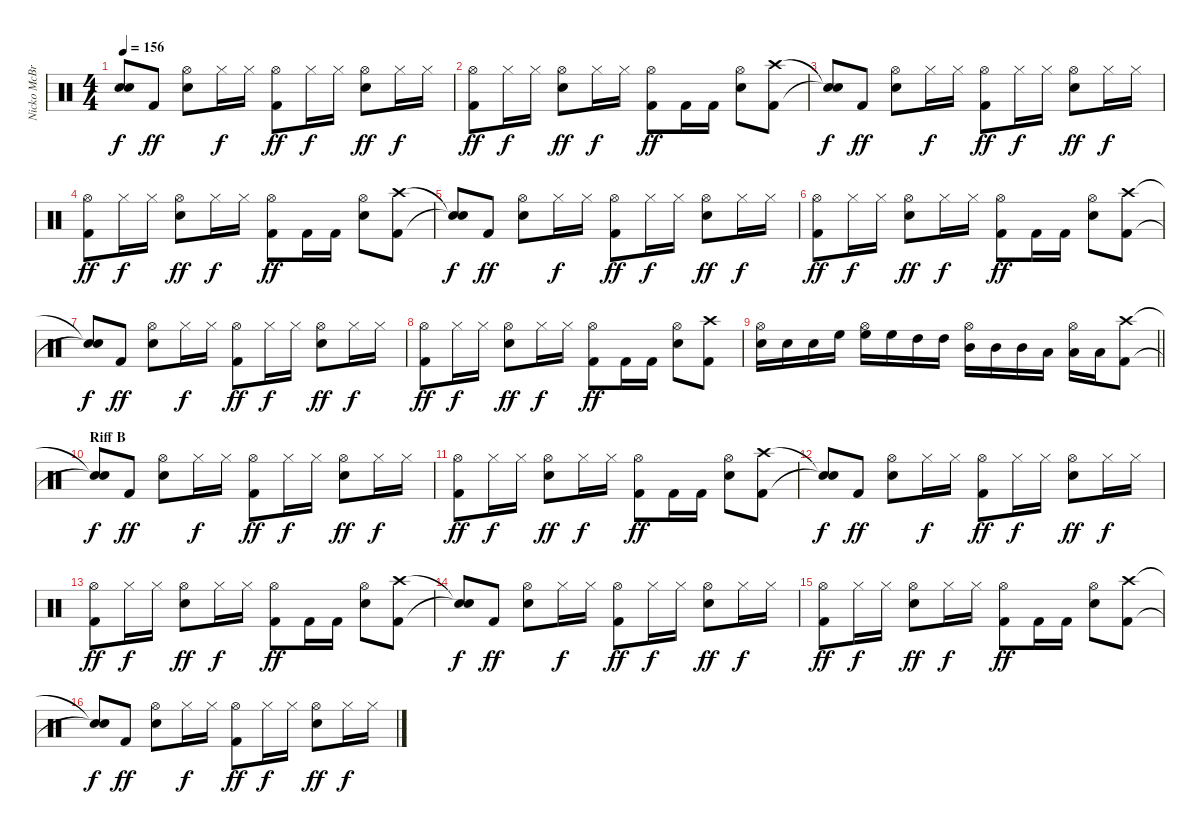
\track ("Nicko McBrain" "Nicko McBr") {instrument percussion}
\staff {score}
\articulation defaults
\ts (4 4)
\tempo 156
\clef neutral
\ks c
("Snare (hit)"{t} "Snare (hit)"{t}).8{dy f} "Kick (hit) 2".8{dy ff} ("Snare (hit) 2" "Hi-Hat (open)").8 "Hi-Hat (closed)".16{dy f} "Hi-Hat (closed)".16 ("Kick (hit) 2" "Hi-Hat (open)").8{dy ff} "Hi-Hat (closed)".16{dy f} "Hi-Hat (closed)".16 ("Snare (hit) 2" "Hi-Hat (open)").8{dy ff} "Hi-Hat (closed)".16{dy f} "Hi-Hat (closed)".16 |
("Kick (hit) 2" "Hi-Hat (open)").8{dy ff} "Hi-Hat (closed)".16{dy f} "Hi-Hat (closed)".16 ("Snare (hit) 2" "Hi-Hat (open)").8{dy ff} "Hi-Hat (closed)".16{dy f} "Hi-Hat (closed)".16 ("Kick (hit) 2" "Hi-Hat (open)").8{dy ff} "Kick (hit) 2".16 "Kick (hit) 2".16 ("Snare (hit) 2" "Hi-Hat (open)").8 ("Kick (hit) 2" "Crash high (hit)").8 |
("Snare (hit)"{t} "Snare (hit)"{t}).8{dy f} "Kick (hit) 2".8{dy ff} ("Snare (hit) 2" "Hi-Hat (open)").8 "Hi-Hat (closed)".16{dy f} "Hi-Hat (closed)".16 ("Kick (hit) 2" "Hi-Hat (open)").8{dy ff} "Hi-Hat (closed)".16{dy f} "Hi-Hat (closed)".16 ("Snare (hit) 2" "Hi-Hat (open)").8{dy ff} "Hi-Hat (closed)".16{dy f} "Hi-Hat (closed)".16 |
("Kick (hit) 2" "Hi-Hat (open)").8{dy ff} "Hi-Hat (closed)".16{dy f} "Hi-Hat (closed)".16 ("Snare (hit) 2" "Hi-Hat (open)").8{dy ff} "Hi-Hat (closed)".16{dy f} "Hi-Hat (closed)".16 ("Kick (hit) 2" "Hi-Hat (open)").8{dy ff} "Kick (hit) 2".16 "Kick (hit) 2".16 ("Snare (hit) 2" "Hi-Hat (open)").8 ("Kick (hit) 2" "Crash high (hit)").8 |
("Snare (hit)"{t} "Snare (hit)"{t}).8{dy f} "Kick (hit) 2".8{dy ff} ("Snare (hit) 2" "Hi-Hat (open)").8 "Hi-Hat (closed)".16{dy f} "Hi-Hat (closed)".16 ("Kick (hit) 2" "Hi-Hat (open)").8{dy ff} "Hi-Hat (closed)".16{dy f} "Hi-Hat (closed)".16 ("Snare (hit) 2" "Hi-Hat (open)").8{dy ff} "Hi-Hat (closed)".16{dy f} "Hi-Hat (closed)".16 |
("Kick (hit) 2" "Hi-Hat (open)").8{dy ff} "Hi-Hat (closed)".16{dy f} "Hi-Hat (closed)".16 ("Snare (hit) 2" "Hi-Hat (open)").8{dy ff} "Hi-Hat (closed)".16{dy f} "Hi-Hat (closed)".16 ("Kick (hit) 2" "Hi-Hat (open)").8{dy ff} "Kick (hit) 2".16 "Kick (hit) 2".16 ("Snare (hit) 2" "Hi-Hat (open)").8 ("Kick (hit) 2" "Crash high (hit)").8 |
("Snare (hit)"{t} "Snare (hit)"{t}).8{dy f} "Kick (hit) 2".8{dy ff} ("Snare (hit) 2" "Hi-Hat (open)").8 "Hi-Hat (closed)".16{dy f} "Hi-Hat (closed)".16 ("Kick (hit) 2" "Hi-Hat (open)").8{dy ff} "Hi-Hat (closed)".16{dy f} "Hi-Hat (closed)".16 ("Snare (hit) 2" "Hi-Hat (open)").8{dy ff} "Hi-Hat (closed)".16{dy f} "Hi-Hat (closed)".16 |
("Kick (hit) 2" "Hi-Hat (open)").8{dy ff} "Hi-Hat (closed)".16{dy f} "Hi-Hat (closed)".16 ("Snare (hit) 2" "Hi-Hat (open)").8{dy ff} "Hi-Hat (closed)".16{dy f} "Hi-Hat (closed)".16 ("Kick (hit) 2" "Hi-Hat (open)").8{dy ff} "Kick (hit) 2".16 "Kick (hit) 2".16 ("Snare (hit) 2" "Hi-Hat (open)").8 ("Kick (hit) 2" "Crash high (hit)").8 |
\barLineRight lightlight
("Snare (hit) 2" "Hi-Hat (open)").16 "Snare (hit) 2".16 "Snare (hit) 2".16 "High Floor Tom (hit)".16 ("Hi-Hat (open)" "High Floor Tom (hit)").16 "High Floor Tom (hit)".16 "High Tom (hit)".16 "High Tom (hit)".16 ("Hi-Hat (open)" "Mid Tom (hit)").16 "Mid Tom (hit)".16 "Mid Tom (hit)".16 "Low Tom (hit)".16 ("Low Tom (hit)" "Hi-Hat (open)").16 "Low Tom (hit)".16 ("Kick (hit) 2" "Crash high (hit)").8 |
\section ("" "Riff B")
("Snare (hit)"{t} "Snare (hit)"{t}).8{dy f} "Kick (hit) 2".8{dy ff} ("Snare (hit) 2" "Hi-Hat (open)").8 "Hi-Hat (closed)".16{dy f} "Hi-Hat (closed)".16 ("Kick (hit) 2" "Hi-Hat (open)").8{dy ff} "Hi-Hat (closed)".16{dy f} "Hi-Hat (closed)".16 ("Snare (hit) 2" "Hi-Hat (open)").8{dy ff} "Hi-Hat (closed)".16{dy f} "Hi-Hat (closed)".16 |
("Kick (hit) 2" "Hi-Hat (open)").8{dy ff} "Hi-Hat (closed)".16{dy f} "Hi-Hat (closed)".16 ("Snare (hit) 2" "Hi-Hat (open)").8{dy ff} "Hi-Hat (closed)".16{dy f} "Hi-Hat (closed)".16 ("Kick (hit) 2" "Hi-Hat (open)").8{dy ff} "Kick (hit) 2".16 "Kick (hit) 2".16 ("Snare (hit) 2" "Hi-Hat (open)").8 ("Kick (hit) 2" "Crash high (hit)").8 |
("Snare (hit)"{t} "Snare (hit)"{t}).8{dy f} "Kick (hit) 2".8{dy ff} ("Snare (hit) 2" "Hi-Hat (open)").8 "Hi-Hat (closed)".16{dy f} "Hi-Hat (closed)".16 ("Kick (hit) 2" "Hi-Hat (open)").8{dy ff} "Hi-Hat (closed)".16{dy f} "Hi-Hat (closed)".16 ("Snare (hit) 2" "Hi-Hat (open)").8{dy ff} "Hi-Hat (closed)".16{dy f} "Hi-Hat (closed)".16 |
("Kick (hit) 2" "Hi-Hat (open)").8{dy ff} "Hi-Hat (closed)".16{dy f} "Hi-Hat (closed)".16 ("Snare (hit) 2" "Hi-Hat (open)").8{dy ff} "Hi-Hat (closed)".16{dy f} "Hi-Hat (closed)".16 ("Kick (hit) 2" "Hi-Hat (open)").8{dy ff} "Kick (hit) 2".16 "Kick (hit) 2".16 ("Snare (hit) 2" "Hi-Hat (open)").8 ("Kick (hit) 2" "Crash high (hit)").8 |
("Snare (hit)"{t} "Snare (hit)"{t}).8{dy f} "Kick (hit) 2".8{dy ff} ("Snare (hit) 2" "Hi-Hat (open)").8 "Hi-Hat (closed)".16{dy f} "Hi-Hat (closed)".16 ("Kick (hit) 2" "Hi-Hat (open)").8{dy ff} "Hi-Hat (closed)".16{dy f} "Hi-Hat (closed)".16 ("Snare (hit) 2" "Hi-Hat (open)").8{dy ff} "Hi-Hat (closed)".16{dy f} "Hi-Hat (closed)".16 |
("Kick (hit) 2" "Hi-Hat (open)").8{dy ff} "Hi-Hat (closed)".16{dy f} "Hi-Hat (closed)".16 ("Snare (hit) 2" "Hi-Hat (open)").8{dy ff} "Hi-Hat (closed)".16{dy f} "Hi-Hat (closed)".16 ("Kick (hit) 2" "Hi-Hat (open)").8{dy ff} "Kick (hit) 2".16 "Kick (hit) 2".16 ("Snare (hit) 2" "Hi-Hat (open)").8 ("Kick (hit) 2" "Crash high (hit)").8 |
("Snare (hit)"{t} "Snare (hit)"{t}).8{dy f} "Kick (hit) 2".8{dy ff} ("Snare (hit) 2" "Hi-Hat (open)").8 "Hi-Hat (closed)".16{dy f} "Hi-Hat (closed)".16 ("Kick (hit) 2" "Hi-Hat (open)").8{dy ff} "Hi-Hat (closed)".16{dy f} "Hi-Hat (closed)".16 ("Snare (hit) 2" "Hi-Hat (open)").8{dy ff} "Hi-Hat (closed)".16{dy f} "Hi-Hat (closed)".16
